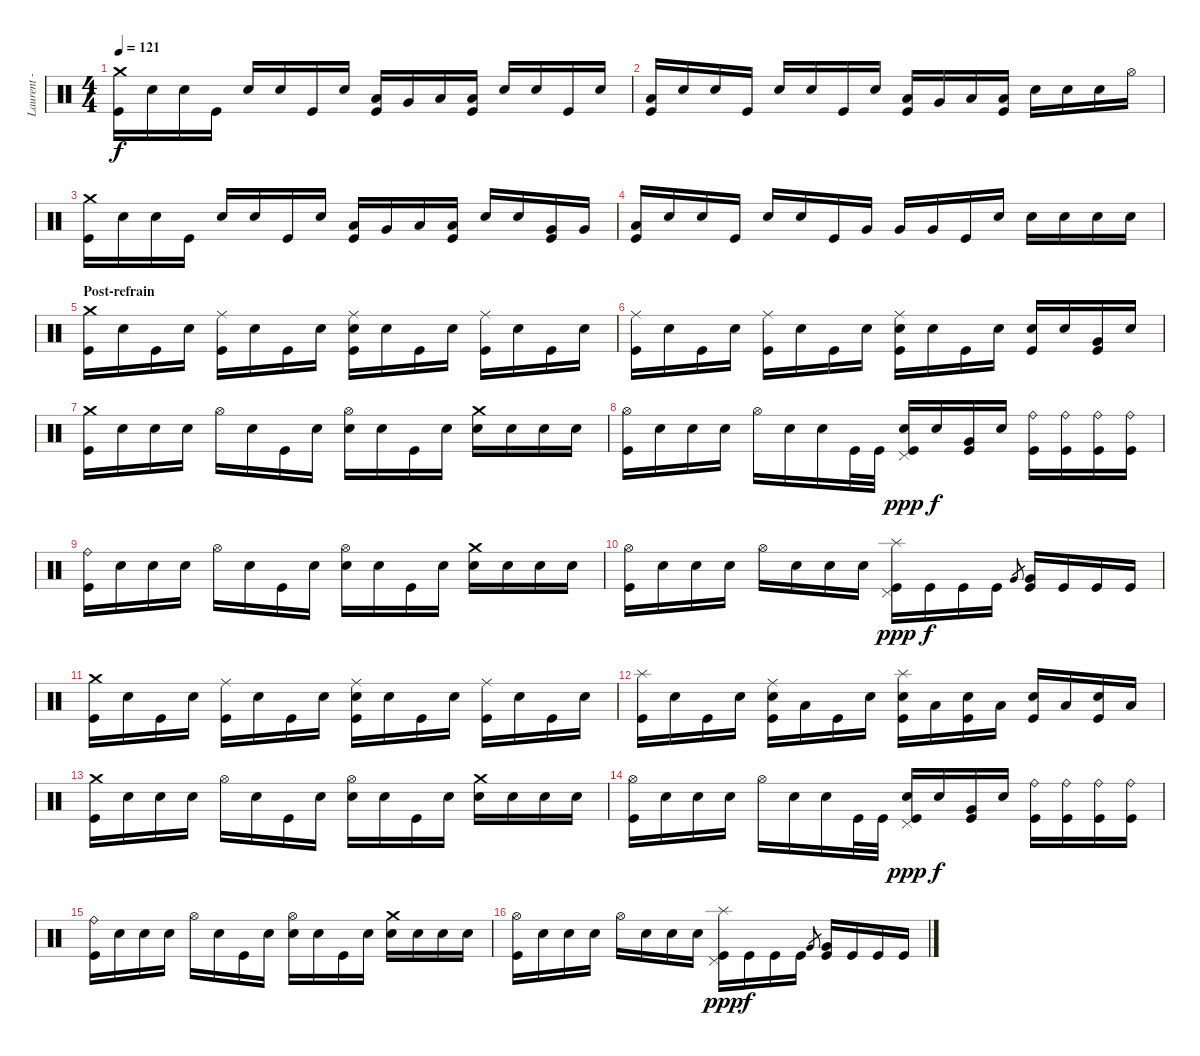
\track ("Laurent - Batterie" "Laurent - ") {instrument percussion}
\staff {score}
\articulation defaults
\ts (4 4)
\tempo 121
\clef neutral
\ks c
("Crash medium (hit)" "Kick (hit)").16{dy f} "Snare (hit)".16 "Snare (hit)".16 "Kick (hit)".16 "Electric Snare (hit)".16 "Snare (hit)".16 "Kick (hit)".16 "Snare (hit)".16 ("Low Tom (hit)" "Kick (hit)").16 "Very Low Tom (hit)".16 "Low Floor Tom (hit)".16 ("Low Floor Tom (hit)" "Kick (hit)").16 "Electric Snare (hit)".16 "Snare (hit)".16 "Kick (hit)".16 "Snare (hit)".16 |
("Low Floor Tom (hit)" "Kick (hit)").16 "Snare (hit)".16 "Snare (hit)".16 "Kick (hit)".16 "Electric Snare (hit)".16 "Snare (hit)".16 "Kick (hit)".16 "Snare (hit)".16 ("Low Tom (hit)" "Kick (hit)").16 "Very Low Tom (hit)".16 "Low Floor Tom (hit)".16 ("Low Floor Tom (hit)" "Kick (hit)").16 "Electric Snare (hit)".16 "Snare (hit)".16 "Snare (hit)".16 "Hi-Hat (open)".16 |
("Crash medium (hit)" "Kick (hit)").16 "Snare (hit)".16 "Snare (hit)".16 "Kick (hit)".16 "Electric Snare (hit)".16 "Snare (hit)".16 "Kick (hit)".16 "Snare (hit)".16 ("Low Tom (hit)" "Kick (hit)").16 "Very Low Tom (hit)".16 "Low Floor Tom (hit)".16 ("Low Floor Tom (hit)" "Kick (hit)").16 "Electric Snare (hit)".16 "Snare (hit)".16 ("Very Low Tom (hit)" "Kick (hit)").16 "Very Low Tom (hit)".16 |
("Low Floor Tom (hit)" "Kick (hit)").16 "Snare (hit)".16 "Snare (hit)".16 "Kick (hit)".16 "Electric Snare (hit)".16 "Snare (hit)".16 "Kick (hit)".16 "Very Low Tom (hit)".16 "Very Low Tom (hit)".16 "Very Low Tom (hit)".16 "Kick (hit)".16 "Snare (hit)".16 "Electric Snare (hit)".16 "Electric Snare (hit)".16 "Electric Snare (hit)".16 "Snare (hit)".16 |
\section ("" "Post-refrain")
("Crash medium (hit)" "Kick (hit)").16 "Snare (hit)".16 "Kick (hit)".16 "Snare (hit)".16 ("Ride (middle)" "Kick (hit)").16 "Snare (hit)".16 "Kick (hit)".16 "Snare (hit)".16 ("Ride (middle)" "Electric Snare (hit)" "Kick (hit)").16 "Snare (hit)".16 "Kick (hit)".16 "Snare (hit)".16 ("Ride (middle)" "Kick (hit)").16 "Snare (hit)".16 "Kick (hit)".16 "Snare (hit)".16 |
("Ride (middle)" "Kick (hit)").16 "Snare (hit)".16 "Kick (hit)".16 "Snare (hit)".16 ("Ride (middle)" "Kick (hit)").16 "Snare (hit)".16 "Kick (hit)".16 "Snare (hit)".16 ("Ride (middle)" "Electric Snare (hit)" "Kick (hit)").16 "Snare (hit)".16 "Kick (hit)".16 "Snare (hit)".16 ("Electric Snare (hit)" "Kick (hit)").16 "Electric Snare (hit)".16 ("Very Low Tom (hit)" "Kick (hit)").16 "Snare (hit)".16 |
("Crash medium (hit)" "Kick (hit)").16 "Snare (hit)".16 "Snare (hit)".16 "Snare (hit)".16 "Hi-Hat (open)".16 "Snare (hit)".16 "Kick (hit)".16 "Snare (hit)".16 ("Hi-Hat (open)" "Electric Snare (hit)").16 "Snare (hit)".16 "Kick (hit)".16 "Snare (hit)".16 ("Crash medium (hit)" "Electric Snare (hit)").16 "Snare (hit)".16 "Snare (hit)".16 "Snare (hit)".16 |
("Hi-Hat (open)" "Kick (hit)").16 "Snare (hit)".16 "Electric Snare (hit)".16 "Snare (hit)".16 "Hi-Hat (open)".16 "Snare (hit)".16 "Snare (hit)".16 "Kick (hit)".32 "Kick (hit)".32 ("Pedal Hi-Hat (hit)" "Electric Snare (hit)" "Kick (hit)").16{dy ppp} "Snare (hit)".16{dy f} ("Very Low Tom (hit)" "Kick (hit)").16 "Snare (hit)".16 ("Ride (bell)" "Kick (hit)").16 ("Ride (bell)" "Kick (hit)").16 ("Ride (bell)" "Kick (hit)").16 ("Ride (bell)" "Kick (hit)").16 |
("Ride (bell)" "Kick (hit)").16 "Snare (hit)".16 "Snare (hit)".16 "Snare (hit)".16 "Hi-Hat (open)".16 "Snare (hit)".16 "Kick (hit)".16 "Snare (hit)".16 ("Hi-Hat (open)" "Electric Snare (hit)").16 "Snare (hit)".16 "Kick (hit)".16 "Snare (hit)".16 ("Crash medium (hit)" "Electric Snare (hit)").16 "Snare (hit)".16 "Snare (hit)".16 "Snare (hit)".16 |
("Hi-Hat (open)" "Kick (hit)").16 "Snare (hit)".16 "Electric Snare (hit)".16 "Snare (hit)".16 "Hi-Hat (open)".16 "Snare (hit)".16 "Snare (hit)".16 "Snare (hit)".16 ("Splash (hit)" "Pedal Hi-Hat (hit)" "Kick (hit)").16{dy ppp} "Kick (hit)".16{dy f} "Kick (hit)".16 "Kick (hit)".16 "Very Low Tom (hit)".8{gr} ("Very Low Tom (hit)" "Kick (hit)").16 "Kick (hit)".16 "Kick (hit)".16 "Kick (hit)".16 |
("Crash medium (hit)" "Kick (hit)").16 "Snare (hit)".16 "Kick (hit)".16 "Snare (hit)".16 ("Ride (middle)" "Kick (hit)").16 "Snare (hit)".16 "Kick (hit)".16 "Snare (hit)".16 ("Ride (middle)" "Electric Snare (hit)" "Kick (hit)").16 "Snare (hit)".16 "Kick (hit)".16 "Snare (hit)".16 ("Ride (middle)" "Kick (hit)").16 "Snare (hit)".16 "Kick (hit)".16 "Snare (hit)".16 |
("Splash (hit)" "Kick (hit)").16 "Snare (hit)".16 "Kick (hit)".16 "Snare (hit)".16 ("Ride (middle)" "Electric Snare (hit)" "Kick (hit)").16 "Low Tom (hit)".16 "Kick (hit)".16 "Snare (hit)".16 ("Splash (hit)" "Electric Snare (hit)" "Kick (hit)").16 "Low Tom (hit)".16 ("Electric Snare (hit)" "Kick (hit)").16 "Low Tom (hit)".16 ("Electric Snare (hit)" "Kick (hit)").16 "Low Tom (hit)".16 ("Electric Snare (hit)" "Kick (hit)").16 "Low Tom (hit)".16 |
("Crash medium (hit)" "Kick (hit)").16 "Snare (hit)".16 "Snare (hit)".16 "Snare (hit)".16 "Hi-Hat (open)".16 "Snare (hit)".16 "Kick (hit)".16 "Snare (hit)".16 ("Hi-Hat (open)" "Electric Snare (hit)").16 "Snare (hit)".16 "Kick (hit)".16 "Snare (hit)".16 ("Crash medium (hit)" "Electric Snare (hit)").16 "Snare (hit)".16 "Snare (hit)".16 "Snare (hit)".16 |
("Hi-Hat (open)" "Kick (hit)").16 "Snare (hit)".16 "Electric Snare (hit)".16 "Snare (hit)".16 "Hi-Hat (open)".16 "Snare (hit)".16 "Snare (hit)".16 "Kick (hit)".32 "Kick (hit)".32 ("Pedal Hi-Hat (hit)" "Electric Snare (hit)" "Kick (hit)").16{dy ppp} "Snare (hit)".16{dy f} ("Very Low Tom (hit)" "Kick (hit)").16 "Snare (hit)".16 ("Ride (bell)" "Kick (hit)").16 ("Ride (bell)" "Kick (hit)").16 ("Ride (bell)" "Kick (hit)").16 ("Ride (bell)" "Kick (hit)").16 |
("Ride (bell)" "Kick (hit)").16 "Snare (hit)".16 "Snare (hit)".16 "Snare (hit)".16 "Hi-Hat (open)".16 "Snare (hit)".16 "Kick (hit)".16 "Snare (hit)".16 ("Hi-Hat (open)" "Electric Snare (hit)").16 "Snare (hit)".16 "Kick (hit)".16 "Snare (hit)".16 ("Crash medium (hit)" "Electric Snare (hit)").16 "Snare (hit)".16 "Snare (hit)".16 "Snare (hit)".16 |
("Hi-Hat (open)" "Kick (hit)").16 "Snare (hit)".16 "Electric Snare (hit)".16 "Snare (hit)".16 "Hi-Hat (open)".16 "Snare (hit)".16 "Snare (hit)".16 "Snare (hit)".16 ("Splash (hit)" "Pedal Hi-Hat (hit)" "Kick (hit)").16{dy ppp} "Kick (hit)".16{dy f} "Kick (hit)".16 "Kick (hit)".16 "Very Low Tom (hit)".8{gr} ("Very Low Tom (hit)" "Kick (hit)").16 "Kick (hit)".16 "Kick (hit)".16 "Kick (hit)".16
